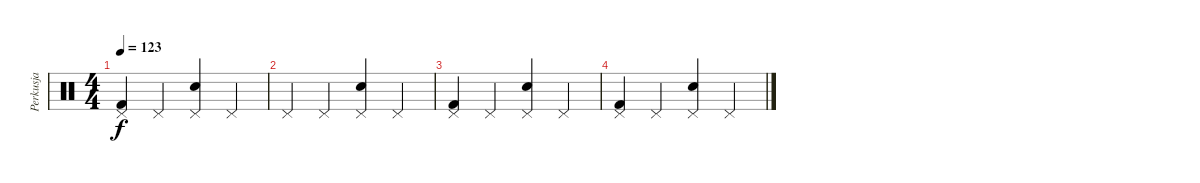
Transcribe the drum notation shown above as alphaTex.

\track ("Perkusja" "Perkusja") {instrument percussion}
\staff {score}
\articulation defaults
\ts (4 4)
\tempo 123
\clef neutral
\ks c
("Kick (hit) 2" "Pedal Hi-Hat (hit)").4{dy f} "Pedal Hi-Hat (hit)".4 ("Snare (hit) 2" "Pedal Hi-Hat (hit)").4 "Pedal Hi-Hat (hit)".4 |
"Pedal Hi-Hat (hit)".4 "Pedal Hi-Hat (hit)".4 ("Snare (hit) 2" "Pedal Hi-Hat (hit)").4 "Pedal Hi-Hat (hit)".4 |
("Kick (hit) 2" "Pedal Hi-Hat (hit)").4 "Pedal Hi-Hat (hit)".4 ("Snare (hit) 2" "Pedal Hi-Hat (hit)").4 "Pedal Hi-Hat (hit)".4 |
("Kick (hit) 2" "Pedal Hi-Hat (hit)").4 "Pedal Hi-Hat (hit)".4 ("Snare (hit) 2" "Pedal Hi-Hat (hit)").4 "Pedal Hi-Hat (hit)".4
